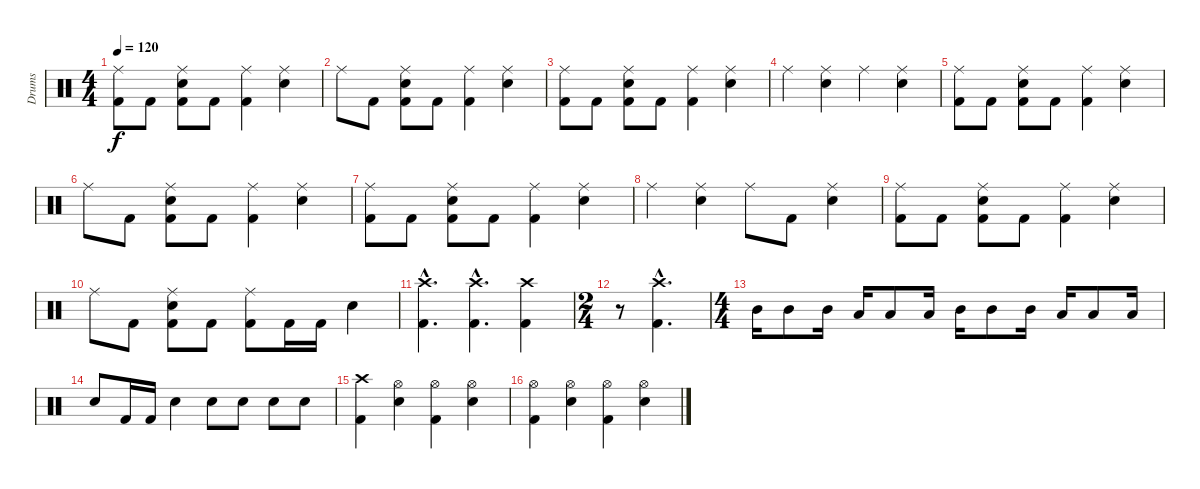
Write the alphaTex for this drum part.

\track ("Drums" "Drums") {instrument percussion}
\staff {score}
\articulation defaults
\ts (4 4)
\tempo 120
\clef neutral
\ks c
("Ride (middle)" "Kick (hit) 2").8{dy f} "Kick (hit) 2".8 ("Ride (middle)" "Electric Snare (hit)" "Kick (hit) 2").8 "Kick (hit) 2".8 ("Ride (middle)" "Kick (hit) 2").4 ("Ride (middle)" "Electric Snare (hit)").4 |
"Ride (middle)".8 "Kick (hit) 2".8 ("Ride (middle)" "Electric Snare (hit)" "Kick (hit) 2").8 "Kick (hit) 2".8 ("Ride (middle)" "Kick (hit) 2").4 ("Ride (middle)" "Electric Snare (hit)").4 |
("Ride (middle)" "Kick (hit) 2").8 "Kick (hit) 2".8 ("Ride (middle)" "Electric Snare (hit)" "Kick (hit) 2").8 "Kick (hit) 2".8 ("Ride (middle)" "Kick (hit) 2").4 ("Ride (middle)" "Electric Snare (hit)").4 |
"Ride (middle)".4 ("Ride (middle)" "Electric Snare (hit)").4 "Ride (middle)".4 ("Ride (middle)" "Electric Snare (hit)").4 |
("Ride (middle)" "Kick (hit) 2").8 "Kick (hit) 2".8 ("Ride (middle)" "Electric Snare (hit)" "Kick (hit) 2").8 "Kick (hit) 2".8 ("Ride (middle)" "Kick (hit) 2").4 ("Ride (middle)" "Electric Snare (hit)").4 |
"Ride (middle)".8 "Kick (hit) 2".8 ("Ride (middle)" "Electric Snare (hit)" "Kick (hit) 2").8 "Kick (hit) 2".8 ("Ride (middle)" "Kick (hit) 2").4 ("Ride (middle)" "Electric Snare (hit)").4 |
("Ride (middle)" "Kick (hit) 2").8 "Kick (hit) 2".8 ("Ride (middle)" "Electric Snare (hit)" "Kick (hit) 2").8 "Kick (hit) 2".8 ("Ride (middle)" "Kick (hit) 2").4 ("Ride (middle)" "Electric Snare (hit)").4 |
"Ride (middle)".4 ("Ride (middle)" "Electric Snare (hit)").4 "Ride (middle)".8 "Kick (hit) 2".8 ("Ride (middle)" "Electric Snare (hit)").4 |
("Ride (middle)" "Kick (hit) 2").8 "Kick (hit) 2".8 ("Ride (middle)" "Electric Snare (hit)" "Kick (hit) 2").8 "Kick (hit) 2".8 ("Ride (middle)" "Kick (hit) 2").4 ("Ride (middle)" "Electric Snare (hit)").4 |
"Ride (middle)".8 "Kick (hit) 2".8 ("Ride (middle)" "Electric Snare (hit)" "Kick (hit) 2").8 "Kick (hit) 2".8 ("Ride (middle)" "Kick (hit) 2").8 "Kick (hit) 2".16 "Kick (hit) 2".16 "Electric Snare (hit)".4 |
("Crash high (hit)"{hac} "Kick (hit) 2"{hac}).4{d} ("Crash high (hit)"{hac} "Kick (hit) 2"{hac}).4{d} ("Crash high (hit)" "Kick (hit) 2").4 |
\ts (2 4)
r.8 ("Crash high (hit)"{hac} "Kick (hit) 2"{hac}).4{d} |
\ts (4 4)
"Mid Tom (hit)".16 "Mid Tom (hit)".8 "Mid Tom (hit)".16 "Low Tom (hit)".16 "Low Tom (hit)".8 "Low Tom (hit)".16 "Mid Tom (hit)".16 "Mid Tom (hit)".8 "Mid Tom (hit)".16 "Low Tom (hit)".16 "Low Tom (hit)".8 "Low Tom (hit)".16 |
"Electric Snare (hit)".8 "Kick (hit) 2".16 "Kick (hit) 2".16 "Electric Snare (hit)".4 "Electric Snare (hit)".8 "Electric Snare (hit)".8 "Electric Snare (hit)".8 "Electric Snare (hit)".8 |
("Crash high (hit)" "Kick (hit) 2").4 ("Hi-Hat (open)" "Electric Snare (hit)").4 ("Hi-Hat (open)" "Kick (hit) 2").4 ("Hi-Hat (open)" "Electric Snare (hit)").4 |
("Hi-Hat (open)" "Kick (hit) 2").4 ("Hi-Hat (open)" "Electric Snare (hit)").4 ("Hi-Hat (open)" "Kick (hit) 2").4 ("Hi-Hat (open)" "Electric Snare (hit)").4
